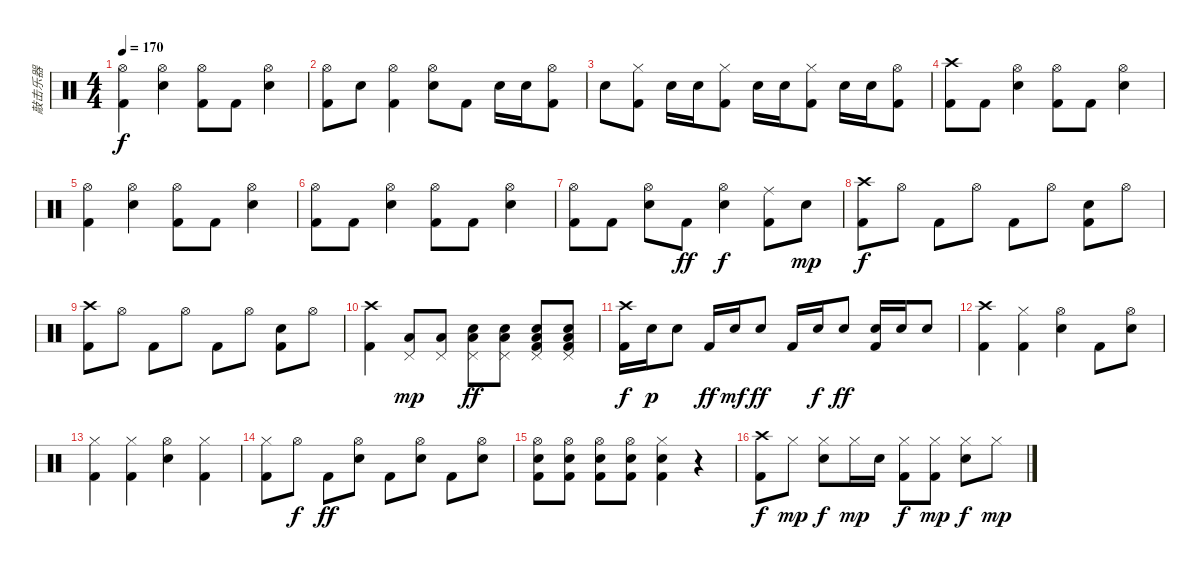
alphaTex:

\track ("敲击乐器" "敲击乐器") {instrument percussion}
\staff {score}
\articulation defaults
\ts (4 4)
\tempo 170
\clef neutral
\ks c
("Hi-Hat (open)" "Kick (hit) 2").4{dy f} ("Hi-Hat (open)" "Snare (hit) 2").4 ("Hi-Hat (open)" "Kick (hit) 2").8 "Kick (hit) 2".8 ("Hi-Hat (open)" "Snare (hit) 2").4 |
("Hi-Hat (open)" "Kick (hit) 2").8 "Snare (hit) 2".8 ("Hi-Hat (open)" "Kick (hit) 2").4 ("Hi-Hat (open)" "Snare (hit) 2").8 "Kick (hit) 2".8 "Snare (hit) 2".16 "Snare (hit) 2".16 ("Hi-Hat (open)" "Kick (hit) 2").8 |
"Snare (hit) 2".8 ("Hi-Hat (closed)" "Kick (hit) 2").8 "Snare (hit) 2".16 "Snare (hit) 2".16 ("Hi-Hat (closed)" "Kick (hit) 2").8 "Snare (hit) 2".16 "Snare (hit) 2".16 ("Hi-Hat (closed)" "Kick (hit) 2").8 "Snare (hit) 2".16 "Snare (hit) 2".16 ("Hi-Hat (open)" "Kick (hit) 2").8 |
("Crash high (hit)" "Kick (hit) 2").8 "Kick (hit) 2".8 ("Hi-Hat (open)" "Snare (hit) 2").4 ("Hi-Hat (open)" "Kick (hit) 2").8 "Kick (hit) 2".8 ("Hi-Hat (open)" "Snare (hit) 2").4 |
("Hi-Hat (open)" "Kick (hit) 2").4 ("Hi-Hat (open)" "Snare (hit) 2").4 ("Hi-Hat (open)" "Kick (hit) 2").8 "Kick (hit) 2".8 ("Hi-Hat (open)" "Snare (hit) 2").4 |
("Hi-Hat (open)" "Kick (hit) 2").8 "Kick (hit) 2".8 ("Hi-Hat (open)" "Snare (hit) 2").4 ("Hi-Hat (open)" "Kick (hit) 2").8 "Kick (hit) 2".8 ("Hi-Hat (open)" "Snare (hit) 2").4 |
("Hi-Hat (open)" "Kick (hit) 2").8 "Kick (hit) 2".8 ("Hi-Hat (open)" "Snare (hit) 2").8 "Kick (hit) 2".8{dy ff} ("Hi-Hat (open)" "Snare (hit) 2").4{dy f} ("Ride (middle)" "Kick (hit) 2").8 "Snare (hit) 2".8{dy mp} |
("Crash high (hit)" "Kick (hit) 2").8{dy f} "Hi-Hat (open)".8 "Kick (hit) 2".8 "Hi-Hat (open)".8 "Kick (hit) 2".8 "Hi-Hat (open)".8 ("Snare (hit) 2" "Kick (hit) 2").8 "Hi-Hat (open)".8 |
("Crash high (hit)" "Kick (hit) 2").8 "Hi-Hat (open)".8 "Kick (hit) 2".8 "Hi-Hat (open)".8 "Kick (hit) 2".8 "Hi-Hat (open)".8 ("Snare (hit) 2" "Kick (hit) 2").8 "Hi-Hat (open)".8 |
("Crash high (hit)" "Kick (hit) 2").4 ("Pedal Hi-Hat (hit)" "Low Floor Tom (hit)").8{dy mp} ("Pedal Hi-Hat (hit)" "Low Floor Tom (hit)").8 ("Pedal Hi-Hat (hit)" "Snare (hit) 2" "Low Floor Tom (hit)").8{dy ff} ("Pedal Hi-Hat (hit)" "Snare (hit) 2" "Low Floor Tom (hit)").8 ("Pedal Hi-Hat (hit)" "Snare (hit) 2" "Low Floor Tom (hit)" "Kick (hit) 2").8 ("Pedal Hi-Hat (hit)" "Snare (hit) 2" "Low Floor Tom (hit)" "Kick (hit) 2").8 |
("Crash high (hit)" "Kick (hit) 2").16{dy f} "Snare (hit) 2".16{dy p} "Snare (hit) 2".8 "Kick (hit) 2".16{dy ff} "Snare (hit) 2".16{dy mf} "Snare (hit) 2".8{dy ff} "Kick (hit) 2".16 "Snare (hit) 2".16{dy f} "Snare (hit) 2".8{dy ff} ("Snare (hit) 2" "Kick (hit) 2").16 "Snare (hit) 2".16 "Snare (hit) 2".8 |
("Crash high (hit)" "Kick (hit) 2").4 ("Hi-Hat (closed)" "Kick (hit) 2").4 ("Hi-Hat (open)" "Snare (hit) 2").4 "Kick (hit) 2".8 ("Hi-Hat (open)" "Snare (hit) 2").8 |
("Hi-Hat (closed)" "Kick (hit) 2").4 ("Hi-Hat (closed)" "Kick (hit) 2").4 ("Hi-Hat (open)" "Snare (hit) 2").4 ("Hi-Hat (closed)" "Kick (hit) 2").4 |
("Hi-Hat (closed)" "Kick (hit) 2").8 "Hi-Hat (open)".8{dy f} "Kick (hit) 2".8{dy ff} ("Hi-Hat (open)" "Snare (hit) 2").8 "Kick (hit) 2".8 ("Hi-Hat (open)" "Snare (hit) 2").8 "Kick (hit) 2".8 ("Hi-Hat (open)" "Snare (hit) 2").8 |
("Hi-Hat (open)" "Snare (hit) 2" "Kick (hit) 2").8 ("Hi-Hat (open)" "Snare (hit) 2" "Kick (hit) 2").8 ("Hi-Hat (open)" "Snare (hit) 2" "Kick (hit) 2").8 ("Hi-Hat (open)" "Snare (hit) 2" "Kick (hit) 2").8 ("Hi-Hat (closed)" "Snare (hit) 2" "Kick (hit) 2").4 r.4 |
("Crash high (hit)" "Kick (hit) 2").8{dy f} "Hi-Hat (closed)".8{dy mp} ("Hi-Hat (closed)" "Snare (hit) 2").8{dy f} "Hi-Hat (closed)".16{dy mp} "Snare (hit) 2".16 ("Hi-Hat (closed)" "Kick (hit) 2").8{dy f} ("Hi-Hat (closed)" "Kick (hit) 2").8{dy mp} ("Hi-Hat (closed)" "Snare (hit) 2").8{dy f} "Hi-Hat (closed)".8{dy mp}
